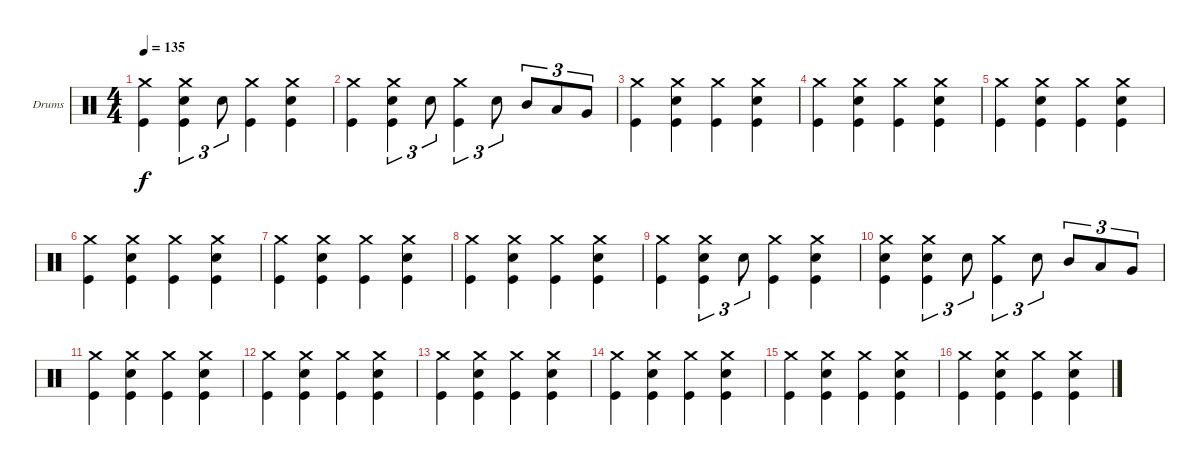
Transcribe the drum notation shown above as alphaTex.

\bracketExtendMode groupsimilarinstruments
\firstSystemTrackNameOrientation horizontal
\otherSystemsTrackNameOrientation horizontal
\track ("Drumkit (Christoph)" "Drums") {instrument percussion}
\staff {score}
\articulation defaults
\ts (4 4)
\tempo 135
\clef neutral
\ks c
("Crash medium (hit)" "Kick (hit)").4{dy f} ("Crash medium (hit)" "Snare (hit) 2" "Kick (hit)").4{tu (3 2)} "Snare (hit) 2".8{tu (3 2)} ("Crash medium (hit)" "Kick (hit)").4 ("Crash medium (hit)" "Snare (hit) 2" "Kick (hit)").4 |
("Crash medium (hit)" "Kick (hit)").4 ("Crash medium (hit)" "Snare (hit) 2" "Kick (hit)").4{tu (3 2)} "Snare (hit) 2".8{tu (3 2)} ("Crash medium (hit)" "Kick (hit)").4{tu (3 2)} "Snare (hit) 2".8{tu (3 2)} "Mid Tom (hit)".8{tu (3 2)} "Low Tom (hit)".8{tu (3 2)} "Very Low Tom (hit)".8{tu (3 2)} |
("Crash medium (hit)" "Kick (hit)").4 ("Crash medium (hit)" "Snare (hit) 2" "Kick (hit)").4 ("Crash medium (hit)" "Kick (hit)").4 ("Crash medium (hit)" "Snare (hit) 2" "Kick (hit)").4 |
("Crash medium (hit)" "Kick (hit)").4 ("Crash medium (hit)" "Snare (hit) 2" "Kick (hit)").4 ("Crash medium (hit)" "Kick (hit)").4 ("Crash medium (hit)" "Snare (hit) 2" "Kick (hit)").4 |
("Crash medium (hit)" "Kick (hit)").4 ("Crash medium (hit)" "Snare (hit) 2" "Kick (hit)").4 ("Crash medium (hit)" "Kick (hit)").4 ("Crash medium (hit)" "Snare (hit) 2" "Kick (hit)").4 |
("Crash medium (hit)" "Kick (hit)").4 ("Crash medium (hit)" "Snare (hit) 2" "Kick (hit)").4 ("Crash medium (hit)" "Kick (hit)").4 ("Crash medium (hit)" "Snare (hit) 2" "Kick (hit)").4 |
("Crash medium (hit)" "Kick (hit)").4 ("Crash medium (hit)" "Snare (hit) 2" "Kick (hit)").4 ("Crash medium (hit)" "Kick (hit)").4 ("Crash medium (hit)" "Snare (hit) 2" "Kick (hit)").4 |
("Crash medium (hit)" "Kick (hit)").4 ("Crash medium (hit)" "Snare (hit) 2" "Kick (hit)").4 ("Crash medium (hit)" "Kick (hit)").4 ("Crash medium (hit)" "Snare (hit) 2" "Kick (hit)").4 |
("Crash medium (hit)" "Kick (hit)").4 ("Crash medium (hit)" "Snare (hit) 2" "Kick (hit)").4{tu (3 2)} "Snare (hit) 2".8{tu (3 2)} ("Crash medium (hit)" "Kick (hit)").4 ("Crash medium (hit)" "Snare (hit) 2" "Kick (hit)").4 |
("Crash medium (hit)" "Snare (hit) 2" "Kick (hit)").4 ("Crash medium (hit)" "Snare (hit) 2" "Kick (hit)").4{tu (3 2)} "Snare (hit) 2".8{tu (3 2)} ("Crash medium (hit)" "Kick (hit)").4{tu (3 2)} "Snare (hit) 2".8{tu (3 2)} "Mid Tom (hit)".8{tu (3 2)} "Low Tom (hit)".8{tu (3 2)} "Very Low Tom (hit)".8{tu (3 2)} |
("Crash medium (hit)" "Kick (hit)").4 ("Crash medium (hit)" "Snare (hit) 2" "Kick (hit)").4 ("Crash medium (hit)" "Kick (hit)").4 ("Crash medium (hit)" "Snare (hit) 2" "Kick (hit)").4 |
("Crash medium (hit)" "Kick (hit)").4 ("Crash medium (hit)" "Snare (hit) 2" "Kick (hit)").4 ("Crash medium (hit)" "Kick (hit)").4 ("Crash medium (hit)" "Snare (hit) 2" "Kick (hit)").4 |
("Crash medium (hit)" "Kick (hit)").4 ("Crash medium (hit)" "Snare (hit) 2" "Kick (hit)").4 ("Crash medium (hit)" "Kick (hit)").4 ("Crash medium (hit)" "Snare (hit) 2" "Kick (hit)").4 |
("Crash medium (hit)" "Kick (hit)").4 ("Crash medium (hit)" "Snare (hit) 2" "Kick (hit)").4 ("Crash medium (hit)" "Kick (hit)").4 ("Crash medium (hit)" "Snare (hit) 2" "Kick (hit)").4 |
("Crash medium (hit)" "Kick (hit)").4 ("Crash medium (hit)" "Snare (hit) 2" "Kick (hit)").4 ("Crash medium (hit)" "Kick (hit)").4 ("Crash medium (hit)" "Snare (hit) 2" "Kick (hit)").4 |
("Crash medium (hit)" "Kick (hit)").4 ("Crash medium (hit)" "Snare (hit) 2" "Kick (hit)").4 ("Crash medium (hit)" "Kick (hit)").4 ("Crash medium (hit)" "Snare (hit) 2" "Kick (hit)").4
